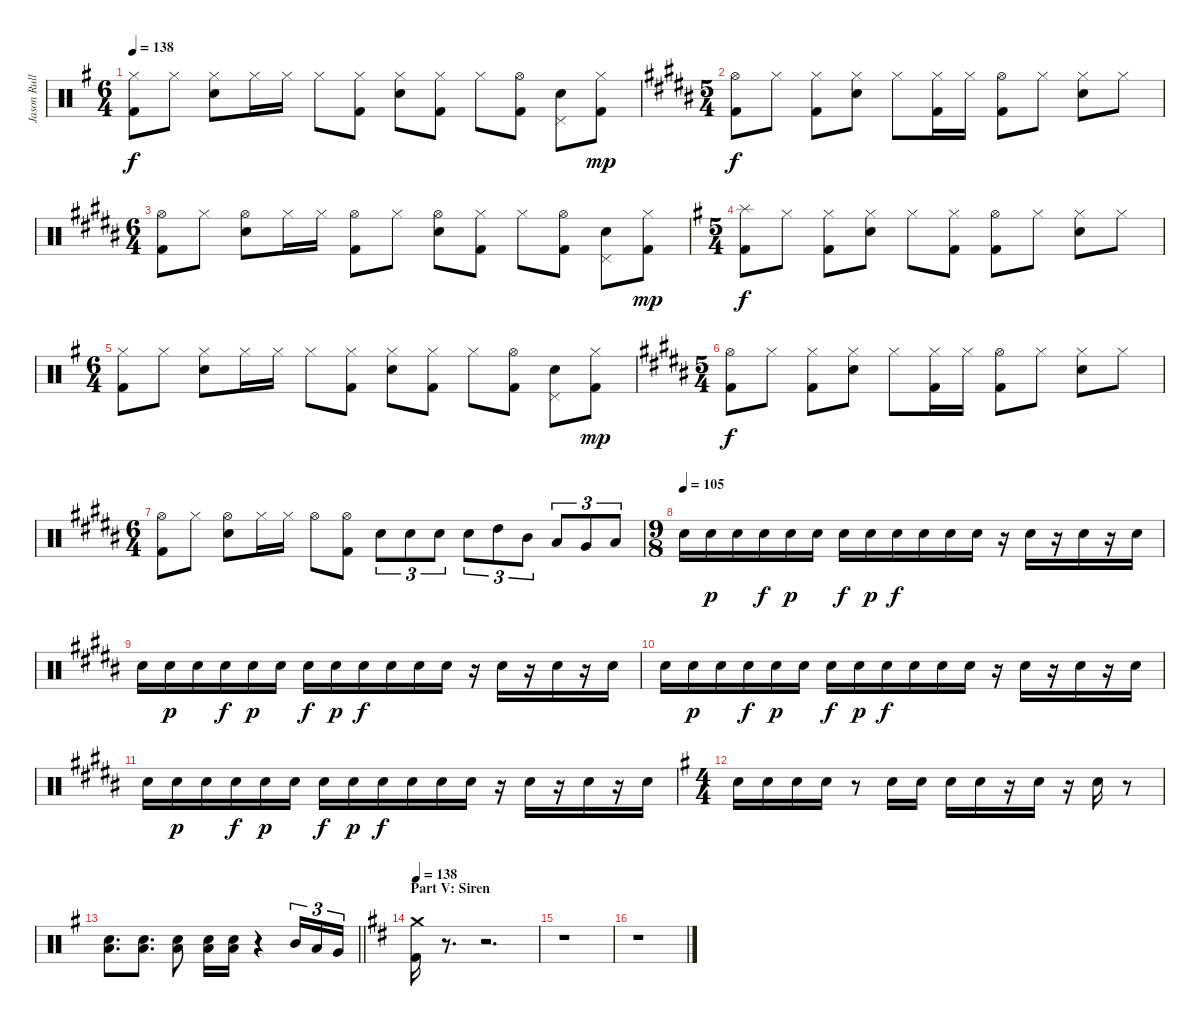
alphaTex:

\track ("Jason Rullo (drums)" "Jason Rull") {instrument percussion}
\staff {score}
\articulation defaults
\ts (6 4)
\tempo 138
\clef neutral
\ks g
("Hi-Hat (closed)" "Kick (hit) 2").8{dy f} "Hi-Hat (closed)".8 ("Hi-Hat (closed)" "Electric Snare (hit)").8 "Hi-Hat (closed)".16 "Hi-Hat (closed)".16 "Hi-Hat (closed)".8 ("Hi-Hat (closed)" "Kick (hit) 2").8 ("Hi-Hat (closed)" "Electric Snare (hit)").8 ("Kick (hit) 2" "Hi-Hat (closed)").8 "Hi-Hat (closed)".8 ("Hi-Hat (open)" "Kick (hit) 2").8 ("Electric Snare (hit)" "Pedal Hi-Hat (hit)").8 ("Kick (hit) 2" "Hi-Hat (closed)").8{dy mp} |
\ts (5 4)
\ks b
("Hi-Hat (open)" "Kick (hit) 2").8{dy f} "Hi-Hat (closed)".8 ("Kick (hit) 2" "Hi-Hat (closed)").8 ("Hi-Hat (closed)" "Electric Snare (hit)").8 "Hi-Hat (closed)".8 ("Hi-Hat (closed)" "Kick (hit) 2").16 "Hi-Hat (closed)".16 ("Hi-Hat (open)" "Kick (hit) 2").8 "Hi-Hat (closed)".8 ("Hi-Hat (closed)" "Electric Snare (hit)").8 "Hi-Hat (closed)".8 |
\ts (6 4)
("Hi-Hat (open)" "Kick (hit) 2").8 "Hi-Hat (closed)".8 ("Hi-Hat (open)" "Electric Snare (hit)").8 "Hi-Hat (closed)".16 "Hi-Hat (closed)".16 ("Hi-Hat (open)" "Kick (hit) 2").8 "Hi-Hat (closed)".8 ("Hi-Hat (open)" "Electric Snare (hit)").8 ("Hi-Hat (closed)" "Kick (hit) 2").8 "Hi-Hat (closed)".8 ("Hi-Hat (open)" "Kick (hit) 2").8 ("Electric Snare (hit)" "Pedal Hi-Hat (hit)").8 ("Kick (hit) 2" "Hi-Hat (closed)").8{dy mp} |
\ts (5 4)
\ks g
("Splash (hit)" "Kick (hit) 2").8{dy f} "Hi-Hat (closed)".8 ("Kick (hit) 2" "Hi-Hat (closed)").8 ("Hi-Hat (closed)" "Electric Snare (hit)").8 "Hi-Hat (closed)".8 ("Hi-Hat (closed)" "Kick (hit) 2").8 ("Hi-Hat (open)" "Kick (hit) 2").8 "Hi-Hat (closed)".8 ("Hi-Hat (closed)" "Electric Snare (hit)").8 "Hi-Hat (closed)".8 |
\ts (6 4)
("Hi-Hat (closed)" "Kick (hit) 2").8 "Hi-Hat (closed)".8 ("Hi-Hat (closed)" "Electric Snare (hit)").8 "Hi-Hat (closed)".16 "Hi-Hat (closed)".16 "Hi-Hat (closed)".8 ("Hi-Hat (closed)" "Kick (hit) 2").8 ("Hi-Hat (closed)" "Electric Snare (hit)").8 ("Kick (hit) 2" "Hi-Hat (closed)").8 "Hi-Hat (closed)".8 ("Hi-Hat (open)" "Kick (hit) 2").8 ("Electric Snare (hit)" "Pedal Hi-Hat (hit)").8 ("Kick (hit) 2" "Hi-Hat (closed)").8{dy mp} |
\ts (5 4)
\ks b
("Hi-Hat (open)" "Kick (hit) 2").8{dy f} "Hi-Hat (closed)".8 ("Kick (hit) 2" "Hi-Hat (closed)").8 ("Hi-Hat (closed)" "Electric Snare (hit)").8 "Hi-Hat (closed)".8 ("Hi-Hat (closed)" "Kick (hit) 2").16 "Hi-Hat (closed)".16 ("Hi-Hat (open)" "Kick (hit) 2").8 "Hi-Hat (closed)".8 ("Hi-Hat (closed)" "Electric Snare (hit)").8 "Hi-Hat (closed)".8 |
\ts (6 4)
("Hi-Hat (open)" "Kick (hit) 2").8 "Hi-Hat (closed)".8 ("Hi-Hat (open)" "Electric Snare (hit)").8 "Hi-Hat (closed)".16 "Hi-Hat (closed)".16 "Hi-Hat (open)".8 ("Kick (hit) 2" "Hi-Hat (open)").8 "Electric Snare (hit)".8{tu (3 2)} "Electric Snare (hit)".8{tu (3 2)} "Electric Snare (hit)".8{tu (3 2)} "Electric Snare (hit)".8{tu (3 2)} "High Tom (hit)".8{tu (3 2)} "Mid Tom (hit)".8{tu (3 2)} "Low Tom (hit)".8{tu (3 2)} "Very Low Tom (hit)".8{tu (3 2)} "Low Floor Tom (hit)".8{tu (3 2)} |
\ts (9 8)
\tempo 104
\tempo (105)
"Electric Snare (hit)".16 "Electric Snare (hit)".16{dy p} "Electric Snare (hit)".16 "Electric Snare (hit)".16{dy f} "Electric Snare (hit)".16{dy p} "Electric Snare (hit)".16 "Electric Snare (hit)".16{dy f} "Electric Snare (hit)".16{dy p} "Electric Snare (hit)".16{dy f} "Electric Snare (hit)".16 "Electric Snare (hit)".16 "Electric Snare (hit)".16 r.16 "Electric Snare (hit)".16 r.16 "Electric Snare (hit)".16 r.16 "Electric Snare (hit)".16 |
"Electric Snare (hit)".16 "Electric Snare (hit)".16{dy p} "Electric Snare (hit)".16 "Electric Snare (hit)".16{dy f} "Electric Snare (hit)".16{dy p} "Electric Snare (hit)".16 "Electric Snare (hit)".16{dy f} "Electric Snare (hit)".16{dy p} "Electric Snare (hit)".16{dy f} "Electric Snare (hit)".16 "Electric Snare (hit)".16 "Electric Snare (hit)".16 r.16 "Electric Snare (hit)".16 r.16 "Electric Snare (hit)".16 r.16 "Electric Snare (hit)".16 |
"Electric Snare (hit)".16 "Electric Snare (hit)".16{dy p} "Electric Snare (hit)".16 "Electric Snare (hit)".16{dy f} "Electric Snare (hit)".16{dy p} "Electric Snare (hit)".16 "Electric Snare (hit)".16{dy f} "Electric Snare (hit)".16{dy p} "Electric Snare (hit)".16{dy f} "Electric Snare (hit)".16 "Electric Snare (hit)".16 "Electric Snare (hit)".16 r.16 "Electric Snare (hit)".16 r.16 "Electric Snare (hit)".16 r.16 "Electric Snare (hit)".16 |
"Electric Snare (hit)".16 "Electric Snare (hit)".16{dy p} "Electric Snare (hit)".16 "Electric Snare (hit)".16{dy f} "Electric Snare (hit)".16{dy p} "Electric Snare (hit)".16 "Electric Snare (hit)".16{dy f} "Electric Snare (hit)".16{dy p} "Electric Snare (hit)".16{dy f} "Electric Snare (hit)".16 "Electric Snare (hit)".16 "Electric Snare (hit)".16 r.16 "Electric Snare (hit)".16 r.16 "Electric Snare (hit)".16 r.16 "Electric Snare (hit)".16 |
\ts (4 4)
\ks g "Electric Snare (hit)".16 "Electric Snare (hit)".16 "Electric Snare (hit)".16 "Electric Snare (hit)".16
r.8 "Electric Snare (hit)".16 "Electric Snare (hit)".16 "Electric Snare (hit)".16 "Electric Snare (hit)".16 r.16 "Electric Snare (hit)".16 r.16 "Electric Snare (hit)".16 r.8 |
\barLineRight lightlight
("Low Tom (hit)" "Electric Snare (hit)").8{d} ("Low Tom (hit)" "Electric Snare (hit)").8{d} ("Low Tom (hit)" "Electric Snare (hit)").8 ("Low Tom (hit)" "Electric Snare (hit)").16 ("Low Tom (hit)" "Electric Snare (hit)").16 r.4 "Mid Tom (hit)".16{tu (3 2)} "Low Tom (hit)".16{tu (3 2)} "Very Low Tom (hit)".16{tu (3 2)} |
\section ("" "Part V: Siren")
\tempo 138
\ks bminor
("Crash medium (hit)" "Kick (hit) 2").16 r.8{d} r.2{d} |
r.1 |
r.1
